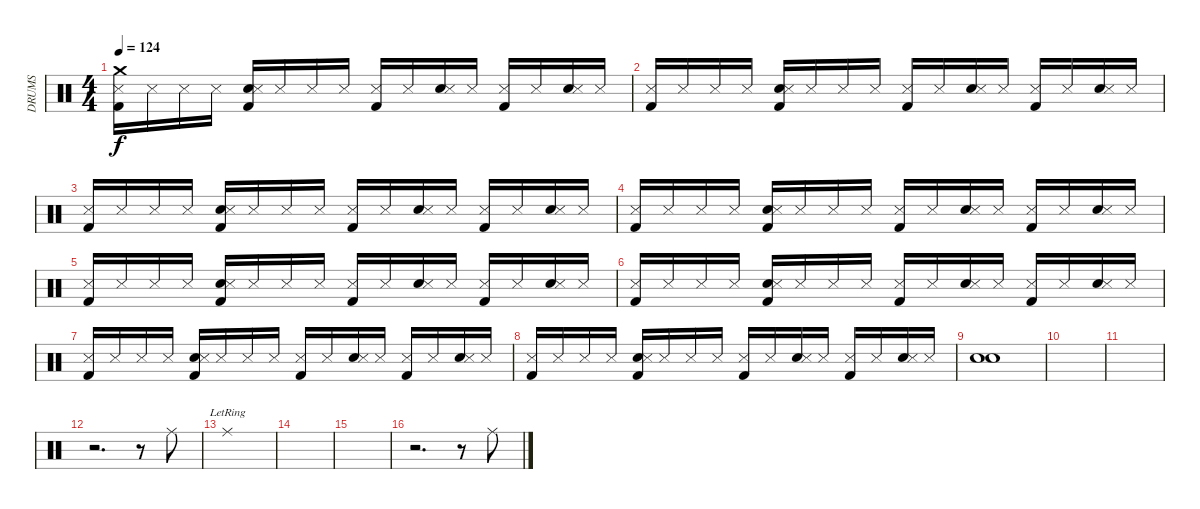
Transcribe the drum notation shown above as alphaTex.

\track ("DRUMS" "DRUMS") {instrument percussion}
\staff {score}
\articulation defaults
\ts (4 4)
\tempo 124
\clef neutral
\ks c
("Kick (hit) 2" "Snare (side stick) 3" "Crash medium (hit)").16{dy f} "Snare (side stick) 3".16 "Snare (side stick) 3".16 "Snare (side stick) 3".16 ("Kick (hit) 2" "Snare (hit) 2" "Snare (side stick) 3").16 "Snare (side stick) 3".16 "Snare (side stick) 3".16 "Snare (side stick) 3".16 ("Kick (hit) 2" "Snare (side stick) 3").16 "Snare (side stick) 3".16 ("Snare (hit) 2" "Snare (side stick) 3").16 "Snare (side stick) 3".16 ("Kick (hit) 2" "Snare (side stick) 3").16 "Snare (side stick) 3".16 ("Snare (hit) 2" "Snare (side stick) 3").16 "Snare (side stick) 3".16 |
("Kick (hit) 2" "Snare (side stick) 3").16 "Snare (side stick) 3".16 "Snare (side stick) 3".16 "Snare (side stick) 3".16 ("Kick (hit) 2" "Snare (hit) 2" "Snare (side stick) 3").16 "Snare (side stick) 3".16 "Snare (side stick) 3".16 "Snare (side stick) 3".16 ("Kick (hit) 2" "Snare (side stick) 3").16 "Snare (side stick) 3".16 ("Snare (hit) 2" "Snare (side stick) 3").16 "Snare (side stick) 3".16 ("Kick (hit) 2" "Snare (side stick) 3").16 "Snare (side stick) 3".16 ("Snare (hit) 2" "Snare (side stick) 3").16 "Snare (side stick) 3".16 |
("Kick (hit) 2" "Snare (side stick) 3").16 "Snare (side stick) 3".16 "Snare (side stick) 3".16 "Snare (side stick) 3".16 ("Kick (hit) 2" "Snare (hit) 2" "Snare (side stick) 3").16 "Snare (side stick) 3".16 "Snare (side stick) 3".16 "Snare (side stick) 3".16 ("Kick (hit) 2" "Snare (side stick) 3").16 "Snare (side stick) 3".16 ("Snare (hit) 2" "Snare (side stick) 3").16 "Snare (side stick) 3".16 ("Kick (hit) 2" "Snare (side stick) 3").16 "Snare (side stick) 3".16 ("Snare (hit) 2" "Snare (side stick) 3").16 "Snare (side stick) 3".16 |
("Kick (hit) 2" "Snare (side stick) 3").16 "Snare (side stick) 3".16 "Snare (side stick) 3".16 "Snare (side stick) 3".16 ("Kick (hit) 2" "Snare (hit) 2" "Snare (side stick) 3").16 "Snare (side stick) 3".16 "Snare (side stick) 3".16 "Snare (side stick) 3".16 ("Kick (hit) 2" "Snare (side stick) 3").16 "Snare (side stick) 3".16 ("Snare (hit) 2" "Snare (side stick) 3").16 "Snare (side stick) 3".16 ("Kick (hit) 2" "Snare (side stick) 3").16 "Snare (side stick) 3".16 ("Snare (hit) 2" "Snare (side stick) 3").16 "Snare (side stick) 3".16 |
("Kick (hit) 2" "Snare (side stick) 3").16 "Snare (side stick) 3".16 "Snare (side stick) 3".16 "Snare (side stick) 3".16 ("Kick (hit) 2" "Snare (hit) 2" "Snare (side stick) 3").16 "Snare (side stick) 3".16 "Snare (side stick) 3".16 "Snare (side stick) 3".16 ("Kick (hit) 2" "Snare (side stick) 3").16 "Snare (side stick) 3".16 ("Snare (hit) 2" "Snare (side stick) 3").16 "Snare (side stick) 3".16 ("Kick (hit) 2" "Snare (side stick) 3").16 "Snare (side stick) 3".16 ("Snare (hit) 2" "Snare (side stick) 3").16 "Snare (side stick) 3".16 |
("Kick (hit) 2" "Snare (side stick) 3").16 "Snare (side stick) 3".16 "Snare (side stick) 3".16 "Snare (side stick) 3".16 ("Kick (hit) 2" "Snare (hit) 2" "Snare (side stick) 3").16 "Snare (side stick) 3".16 "Snare (side stick) 3".16 "Snare (side stick) 3".16 ("Kick (hit) 2" "Snare (side stick) 3").16 "Snare (side stick) 3".16 ("Snare (hit) 2" "Snare (side stick) 3").16 "Snare (side stick) 3".16 ("Kick (hit) 2" "Snare (side stick) 3").16 "Snare (side stick) 3".16 ("Snare (hit) 2" "Snare (side stick) 3").16 "Snare (side stick) 3".16 |
("Kick (hit) 2" "Snare (side stick) 3").16 "Snare (side stick) 3".16 "Snare (side stick) 3".16 "Snare (side stick) 3".16 ("Kick (hit) 2" "Snare (hit) 2" "Snare (side stick) 3").16 "Snare (side stick) 3".16 "Snare (side stick) 3".16 "Snare (side stick) 3".16 ("Kick (hit) 2" "Snare (side stick) 3").16 "Snare (side stick) 3".16 ("Snare (hit) 2" "Snare (side stick) 3").16 "Snare (side stick) 3".16 ("Kick (hit) 2" "Snare (side stick) 3").16 "Snare (side stick) 3".16 ("Snare (hit) 2" "Snare (side stick) 3").16 "Snare (side stick) 3".16 |
("Kick (hit) 2" "Snare (side stick) 3").16 "Snare (side stick) 3".16 "Snare (side stick) 3".16 "Snare (side stick) 3".16 ("Kick (hit) 2" "Snare (hit) 2" "Snare (side stick) 3").16 "Snare (side stick) 3".16 "Snare (side stick) 3".16 "Snare (side stick) 3".16 ("Kick (hit) 2" "Snare (side stick) 3").16 "Snare (side stick) 3".16 ("Snare (hit) 2" "Snare (side stick) 3").16 "Snare (side stick) 3".16 ("Kick (hit) 2" "Snare (side stick) 3").16 "Snare (side stick) 3".16 ("Snare (hit) 2" "Snare (side stick) 3").16 "Snare (side stick) 3".16 |
("Snare (hit) 2" "Snare (hit) 2").1 |
|
|
r.2{d} r.8 "Ride (middle)".8 |
"Ride (middle)"{lr}.1 |
|
|
r.2{d} r.8 "Ride (middle)".8
